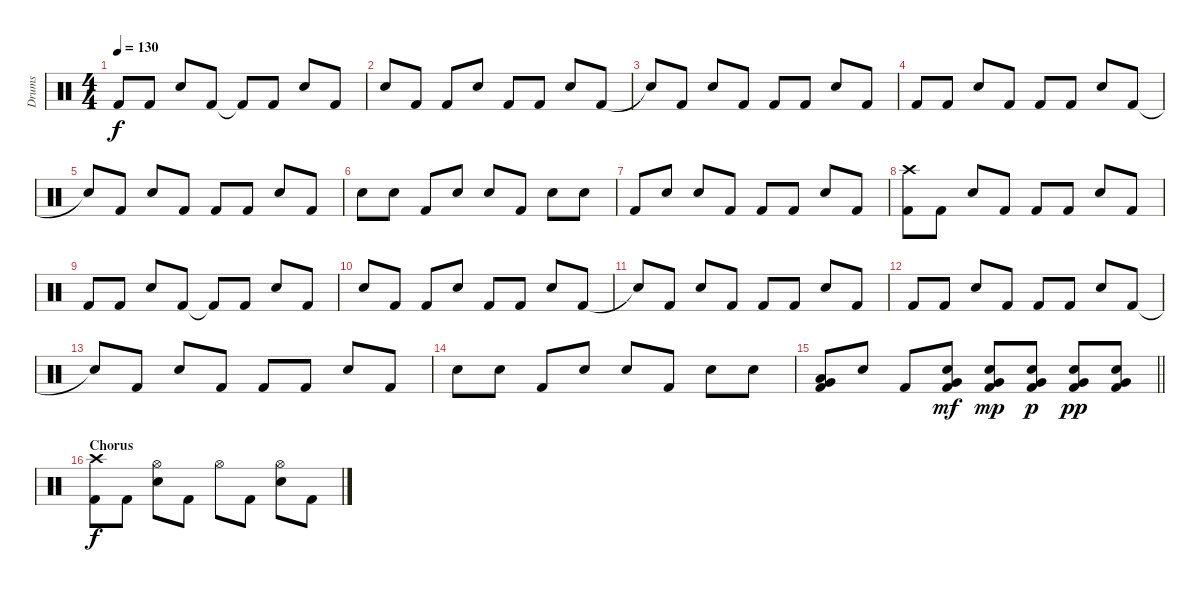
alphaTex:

\track ("Drums" "Drums") {instrument percussion}
\staff {score}
\articulation defaults
\ts (4 4)
\tempo 130
\clef neutral
\ks c "Kick (hit) 2".8{dy f} "Kick (hit) 2".8 "Electric Snare (hit)".8 "Kick (hit) 2".8 "Kick (hit) 2"{t}.8 "Kick (hit) 2".8 "Electric Snare (hit)".8 "Kick (hit) 2".8
|
"Electric Snare (hit)".8 "Kick (hit) 2".8 "Kick (hit) 2".8 "Electric Snare (hit)".8 "Kick (hit) 2".8 "Kick (hit) 2".8 "Electric Snare (hit)".8 "Kick (hit) 2".8 |
"Snare (hit)"{t}.8 "Kick (hit) 2".8 "Electric Snare (hit)".8 "Kick (hit) 2".8 "Kick (hit) 2".8 "Kick (hit) 2".8 "Electric Snare (hit)".8 "Kick (hit) 2".8 |
"Kick (hit) 2".8 "Kick (hit) 2".8 "Electric Snare (hit)".8 "Kick (hit) 2".8 "Kick (hit) 2".8 "Kick (hit) 2".8 "Electric Snare (hit)".8 "Kick (hit) 2".8 |
"Snare (hit)"{t}.8 "Kick (hit) 2".8 "Electric Snare (hit)".8 "Kick (hit) 2".8 "Kick (hit) 2".8 "Kick (hit) 2".8 "Electric Snare (hit)".8 "Kick (hit) 2".8 |
"Electric Snare (hit)".8 "Electric Snare (hit)".8 "Kick (hit) 2".8 "Electric Snare (hit)".8 "Electric Snare (hit)".8 "Kick (hit) 2".8 "Electric Snare (hit)".8 "Electric Snare (hit)".8 |
"Kick (hit) 2".8 "Electric Snare (hit)".8 "Electric Snare (hit)".8 "Kick (hit) 2".8 "Kick (hit) 2".8 "Kick (hit) 2".8 "Electric Snare (hit)".8 "Kick (hit) 2".8 |
("Crash high (hit)" "Kick (hit) 2").8 "Kick (hit) 2".8 "Electric Snare (hit)".8 "Kick (hit) 2".8 "Kick (hit) 2".8 "Kick (hit) 2".8 "Electric Snare (hit)".8 "Kick (hit) 2".8 |
"Kick (hit) 2".8 "Kick (hit) 2".8 "Electric Snare (hit)".8 "Kick (hit) 2".8 "Kick (hit) 2"{t}.8 "Kick (hit) 2".8 "Electric Snare (hit)".8 "Kick (hit) 2".8 |
"Electric Snare (hit)".8 "Kick (hit) 2".8 "Kick (hit) 2".8 "Electric Snare (hit)".8 "Kick (hit) 2".8 "Kick (hit) 2".8 "Electric Snare (hit)".8 "Kick (hit) 2".8 |
"Snare (hit)"{t}.8 "Kick (hit) 2".8 "Electric Snare (hit)".8 "Kick (hit) 2".8 "Kick (hit) 2".8 "Kick (hit) 2".8 "Electric Snare (hit)".8 "Kick (hit) 2".8 |
"Kick (hit) 2".8 "Kick (hit) 2".8 "Electric Snare (hit)".8 "Kick (hit) 2".8 "Kick (hit) 2".8 "Kick (hit) 2".8 "Electric Snare (hit)".8 "Kick (hit) 2".8 |
"Snare (hit)"{t}.8 "Kick (hit) 2".8 "Electric Snare (hit)".8 "Kick (hit) 2".8 "Kick (hit) 2".8 "Kick (hit) 2".8 "Electric Snare (hit)".8 "Kick (hit) 2".8 |
"Electric Snare (hit)".8 "Electric Snare (hit)".8 "Kick (hit) 2".8 "Electric Snare (hit)".8 "Electric Snare (hit)".8 "Kick (hit) 2".8 "Electric Snare (hit)".8 "Electric Snare (hit)".8 |
\barLineRight lightlight
("Low Floor Tom (hit)" "Very Low Tom (hit)" "Kick (hit) 2").8 "Electric Snare (hit)".8 "Kick (hit) 2".8 ("Very Low Tom (hit)" "Electric Snare (hit)" "Kick (hit) 2").8{dy mf} ("Very Low Tom (hit)" "Electric Snare (hit)" "Kick (hit) 2").8{dy mp} ("Very Low Tom (hit)" "Electric Snare (hit)" "Kick (hit) 2").8{dy p} ("Very Low Tom (hit)" "Electric Snare (hit)" "Kick (hit) 2").8{dy pp} ("Very Low Tom (hit)" "Electric Snare (hit)" "Kick (hit) 2").8 |
\section ("" "Chorus")
("Crash high (hit)" "Kick (hit) 2").8{dy f} "Kick (hit) 2".8 ("Hi-Hat (open)" "Electric Snare (hit)").8 "Kick (hit) 2".8 "Hi-Hat (open)".8 "Kick (hit) 2".8 ("Hi-Hat (open)" "Electric Snare (hit)").8 "Kick (hit) 2".8
